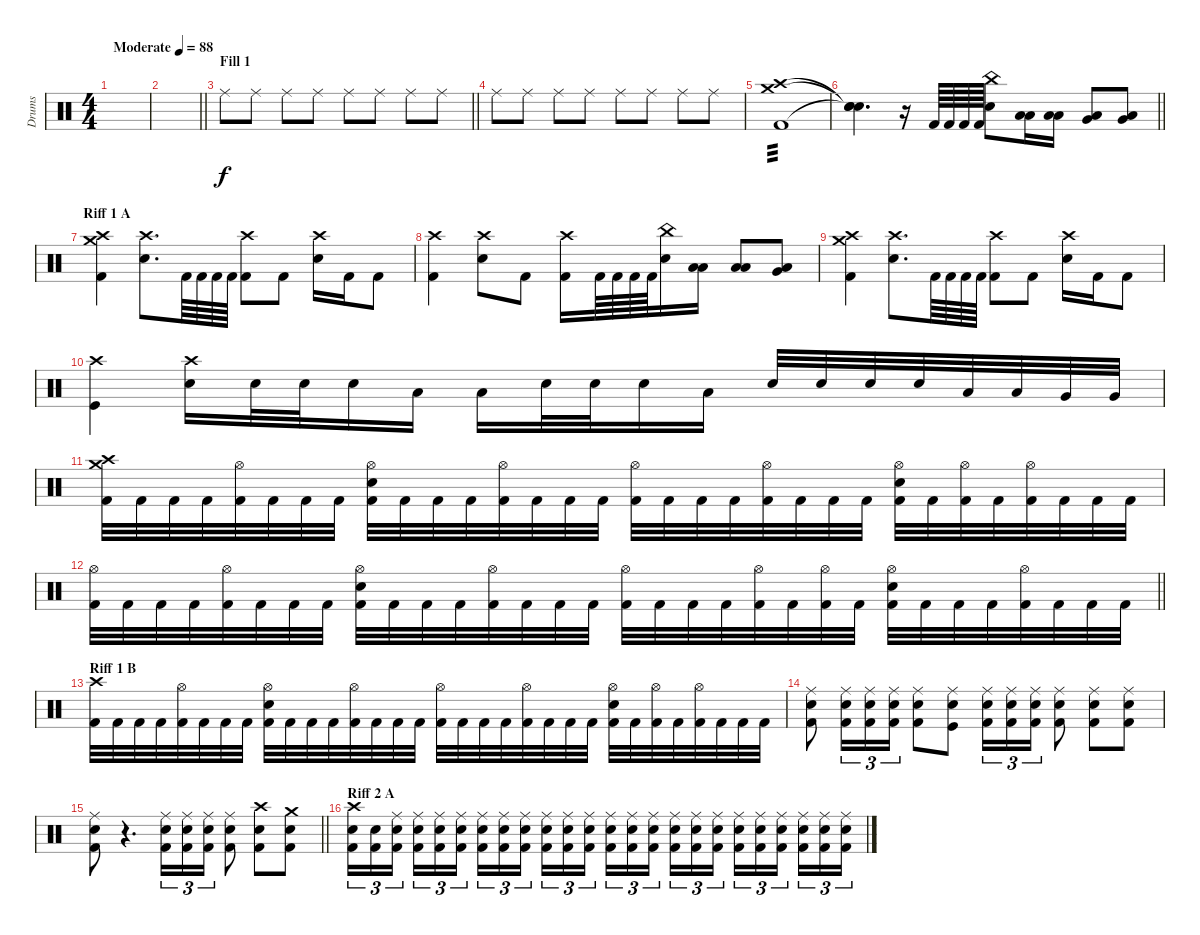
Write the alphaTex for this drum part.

\track ("Drums" "Drums") {instrument percussion}
\staff {score}
\articulation defaults
\ts (4 4)
\tempo (88 "Moderate")
\clef neutral
\ks c
|
\barLineRight lightlight
|
\section ("" "Fill 1")
\barLineRight lightlight "Ride (middle)".8 "Ride (middle)".8 "Ride (middle)".8 "Ride (middle)".8 "Ride (middle)".8 "Ride (middle)".8 "Ride (middle)".8 "Ride (middle)".8
|
"Ride (middle)".8 "Ride (middle)".8 "Ride (middle)".8 "Ride (middle)".8 "Ride (middle)".8 "Ride (middle)".8 "Ride (middle)".8 "Ride (middle)".8 |
("Crash medium (hit)" "Crash high (hit)" "Kick (hit) 2").1{tp 3} |
\barLineRight lightlight
("Snare (hit)"{t} "Snare (hit)"{t} "Snare (hit)"{t}).4{d} r.16 "Kick (hit) 2".64 "Kick (hit) 2".64 "Kick (hit) 2".64 "Kick (hit) 2".64 ("China (hit)" "Electric Snare (hit)").8 ("Low Tom (hit)" "Low Floor Tom (hit)").16 ("Low Tom (hit)" "Low Floor Tom (hit)").16 ("Very Low Tom (hit)" "Low Floor Tom (hit)").8 ("Very Low Tom (hit)" "Low Floor Tom (hit)").8 |
\section ("" "Riff 1 A")
("Crash medium (hit)" "Crash high (hit)" "Kick (hit) 2").4 ("Crash high (hit)" "Electric Snare (hit)").8{d} "Kick (hit) 2".64 "Kick (hit) 2".64 "Kick (hit) 2".64 "Kick (hit) 2".64 ("Crash high (hit)" "Kick (hit) 2").8 "Kick (hit) 2".8 ("Crash high (hit)" "Electric Snare (hit)").16 "Kick (hit) 2".16 "Kick (hit) 2".8 |
("Crash high (hit)" "Kick (hit) 2").4 ("Crash high (hit)" "Electric Snare (hit)").8 "Kick (hit) 2".8 ("Crash high (hit)" "Kick (hit) 2").16 "Kick (hit) 2".64 "Kick (hit) 2".64 "Kick (hit) 2".64 "Kick (hit) 2".64 ("China (hit)" "Electric Snare (hit)").16 ("Low Tom (hit)" "Low Floor Tom (hit)").16 ("Low Tom (hit)" "Low Floor Tom (hit)").8 ("Very Low Tom (hit)" "Low Floor Tom (hit)").8 |
("Crash medium (hit)" "Crash high (hit)" "Kick (hit) 2").4 ("Crash high (hit)" "Electric Snare (hit)").8{d} "Kick (hit) 2".64 "Kick (hit) 2".64 "Kick (hit) 2".64 "Kick (hit) 2".64 ("Crash high (hit)" "Kick (hit) 2").8 "Kick (hit) 2".8 ("Crash high (hit)" "Electric Snare (hit)").16 "Kick (hit) 2".16 "Kick (hit) 2".8 |
("Crash high (hit)" "Kick (hit)").4 ("Crash high (hit)" "Electric Snare (hit)").16 "Electric Snare (hit)".32 "Electric Snare (hit)".32 "Electric Snare (hit)".16 "Low Tom (hit)".16 "Low Tom (hit)".16 "Electric Snare (hit)".32 "Electric Snare (hit)".32 "Electric Snare (hit)".16 "Low Tom (hit)".16 "Electric Snare (hit)".32 "Electric Snare (hit)".32 "Electric Snare (hit)".32 "Electric Snare (hit)".32 "Low Tom (hit)".32 "Low Tom (hit)".32 "Very Low Tom (hit)".32 "Very Low Tom (hit)".32 |
("Crash medium (hit)" "Crash high (hit)" "Kick (hit) 2").32 "Kick (hit) 2".32 "Kick (hit) 2".32 "Kick (hit) 2".32 ("Hi-Hat (open)" "Kick (hit) 2").32 "Kick (hit) 2".32 "Kick (hit) 2".32 "Kick (hit) 2".32 ("Hi-Hat (open)" "Electric Snare (hit)" "Kick (hit) 2").32 "Kick (hit) 2".32 "Kick (hit) 2".32 "Kick (hit) 2".32 ("Hi-Hat (open)" "Kick (hit) 2").32 "Kick (hit) 2".32 "Kick (hit) 2".32 "Kick (hit) 2".32 ("Hi-Hat (open)" "Kick (hit) 2").32 "Kick (hit) 2".32 "Kick (hit) 2".32 "Kick (hit) 2".32 ("Hi-Hat (open)" "Kick (hit) 2").32 "Kick (hit) 2".32 "Kick (hit) 2".32 "Kick (hit) 2".32 ("Hi-Hat (open)" "Electric Snare (hit)" "Kick (hit) 2").32 "Kick (hit) 2".32 ("Hi-Hat (open)" "Kick (hit) 2").32 "Kick (hit) 2".32 ("Hi-Hat (open)" "Kick (hit) 2").32 "Kick (hit) 2".32 "Kick (hit) 2".32 "Kick (hit) 2".32 |
\barLineRight lightlight
("Hi-Hat (open)" "Kick (hit) 2").32 "Kick (hit) 2".32 "Kick (hit) 2".32 "Kick (hit) 2".32 ("Hi-Hat (open)" "Kick (hit) 2").32 "Kick (hit) 2".32 "Kick (hit) 2".32 "Kick (hit) 2".32 ("Hi-Hat (open)" "Electric Snare (hit)" "Kick (hit) 2").32 "Kick (hit) 2".32 "Kick (hit) 2".32 "Kick (hit) 2".32 ("Hi-Hat (open)" "Kick (hit) 2").32 "Kick (hit) 2".32 "Kick (hit) 2".32 "Kick (hit) 2".32 ("Hi-Hat (open)" "Kick (hit) 2").32 "Kick (hit) 2".32 "Kick (hit) 2".32 "Kick (hit) 2".32 ("Hi-Hat (open)" "Kick (hit) 2").32 "Kick (hit) 2".32 ("Hi-Hat (open)" "Kick (hit) 2").32 "Kick (hit) 2".32 ("Hi-Hat (open)" "Electric Snare (hit)" "Kick (hit) 2").32 "Kick (hit) 2".32 "Kick (hit) 2".32 "Kick (hit) 2".32 ("Hi-Hat (open)" "Kick (hit) 2").32 "Kick (hit) 2".32 "Kick (hit) 2".32 "Kick (hit) 2".32 |
\section ("" "Riff 1 B")
("Crash high (hit)" "Kick (hit) 2").32 "Kick (hit) 2".32 "Kick (hit) 2".32 "Kick (hit) 2".32 ("Hi-Hat (open)" "Kick (hit) 2").32 "Kick (hit) 2".32 "Kick (hit) 2".32 "Kick (hit) 2".32 ("Hi-Hat (open)" "Electric Snare (hit)" "Kick (hit) 2").32 "Kick (hit) 2".32 "Kick (hit) 2".32 "Kick (hit) 2".32 ("Hi-Hat (open)" "Kick (hit) 2").32 "Kick (hit) 2".32 "Kick (hit) 2".32 "Kick (hit) 2".32 ("Hi-Hat (open)" "Kick (hit) 2").32 "Kick (hit) 2".32 "Kick (hit) 2".32 "Kick (hit) 2".32 ("Hi-Hat (open)" "Kick (hit) 2").32 "Kick (hit) 2".32 "Kick (hit) 2".32 "Kick (hit) 2".32 ("Hi-Hat (open)" "Electric Snare (hit)" "Kick (hit) 2").32 "Kick (hit) 2".32 ("Hi-Hat (open)" "Kick (hit) 2").32 "Kick (hit) 2".32 ("Hi-Hat (open)" "Kick (hit) 2").32 "Kick (hit) 2".32 "Kick (hit) 2".32 "Kick (hit) 2".32 |
("Ride (middle)" "Electric Snare (hit)" "Kick (hit) 2").8 ("Ride (middle)" "Electric Snare (hit)" "Kick (hit) 2").16{tu (3 2)} ("Ride (middle)" "Electric Snare (hit)" "Kick (hit) 2").16{tu (3 2)} ("Ride (middle)" "Electric Snare (hit)" "Kick (hit) 2").16{tu (3 2)} ("Ride (middle)" "Electric Snare (hit)" "Kick (hit) 2").8 ("Ride (middle)" "Electric Snare (hit)" "Kick (hit)").8 ("Ride (middle)" "Electric Snare (hit)" "Kick (hit) 2").16{tu (3 2)} ("Ride (middle)" "Electric Snare (hit)" "Kick (hit) 2").16{tu (3 2)} ("Ride (middle)" "Electric Snare (hit)" "Kick (hit) 2").16{tu (3 2)} ("Ride (middle)" "Electric Snare (hit)" "Kick (hit) 2").8 ("Ride (middle)" "Electric Snare (hit)" "Kick (hit) 2").8 ("Ride (middle)" "Electric Snare (hit)" "Kick (hit) 2").8 |
\barLineRight lightlight
("Ride (middle)" "Electric Snare (hit)" "Kick (hit) 2").8 r.4{d} ("Ride (middle)" "Electric Snare (hit)" "Kick (hit) 2").16{tu (3 2)} ("Ride (middle)" "Electric Snare (hit)" "Kick (hit) 2").16{tu (3 2)} ("Ride (middle)" "Electric Snare (hit)" "Kick (hit) 2").16{tu (3 2)} ("Ride (middle)" "Electric Snare (hit)" "Kick (hit) 2").8 ("Crash high (hit)" "Electric Snare (hit)" "Kick (hit) 2").8 ("Crash medium (hit)" "Electric Snare (hit)" "Kick (hit) 2").8 |
\section ("" "Riff 2 A")
("Crash high (hit)" "Electric Snare (hit)" "Kick (hit) 2").16{tu (3 2)} ("Electric Snare (hit)" "Kick (hit) 2").16{tu (3 2)} ("Ride (middle)" "Electric Snare (hit)" "Kick (hit) 2").16{tu (3 2) beam splitsecondary} ("Ride (middle)" "Electric Snare (hit)" "Kick (hit) 2").16{tu (3 2)} ("Ride (middle)" "Electric Snare (hit)" "Kick (hit) 2").16{tu (3 2)} ("Ride (middle)" "Electric Snare (hit)" "Kick (hit) 2").16{tu (3 2)} ("Ride (middle)" "Electric Snare (hit)" "Kick (hit) 2").16{tu (3 2)} ("Ride (middle)" "Electric Snare (hit)" "Kick (hit) 2").16{tu (3 2)} ("Ride (middle)" "Electric Snare (hit)" "Kick (hit) 2").16{tu (3 2) beam splitsecondary} ("Ride (middle)" "Electric Snare (hit)" "Kick (hit) 2").16{tu (3 2)} ("Ride (middle)" "Electric Snare (hit)" "Kick (hit) 2").16{tu (3 2)} ("Ride (middle)" "Electric Snare (hit)" "Kick (hit) 2").16{tu (3 2)} ("Ride (middle)" "Electric Snare (hit)" "Kick (hit) 2").16{tu (3 2)} ("Ride (middle)" "Electric Snare (hit)" "Kick (hit) 2").16{tu (3 2)} ("Ride (middle)" "Electric Snare (hit)" "Kick (hit) 2").16{tu (3 2) beam splitsecondary} ("Ride (middle)" "Electric Snare (hit)" "Kick (hit) 2").16{tu (3 2)} ("Ride (middle)" "Electric Snare (hit)" "Kick (hit) 2").16{tu (3 2)} ("Ride (middle)" "Electric Snare (hit)" "Kick (hit) 2").16{tu (3 2)} ("Ride (middle)" "Electric Snare (hit)" "Kick (hit) 2").16{tu (3 2)} ("Ride (middle)" "Electric Snare (hit)" "Kick (hit) 2").16{tu (3 2)} ("Ride (middle)" "Electric Snare (hit)" "Kick (hit) 2").16{tu (3 2) beam splitsecondary} ("Ride (middle)" "Electric Snare (hit)" "Kick (hit) 2").16{tu (3 2)} ("Ride (middle)" "Electric Snare (hit)" "Kick (hit) 2").16{tu (3 2)} ("Ride (middle)" "Electric Snare (hit)" "Kick (hit) 2").16{tu (3 2)}
